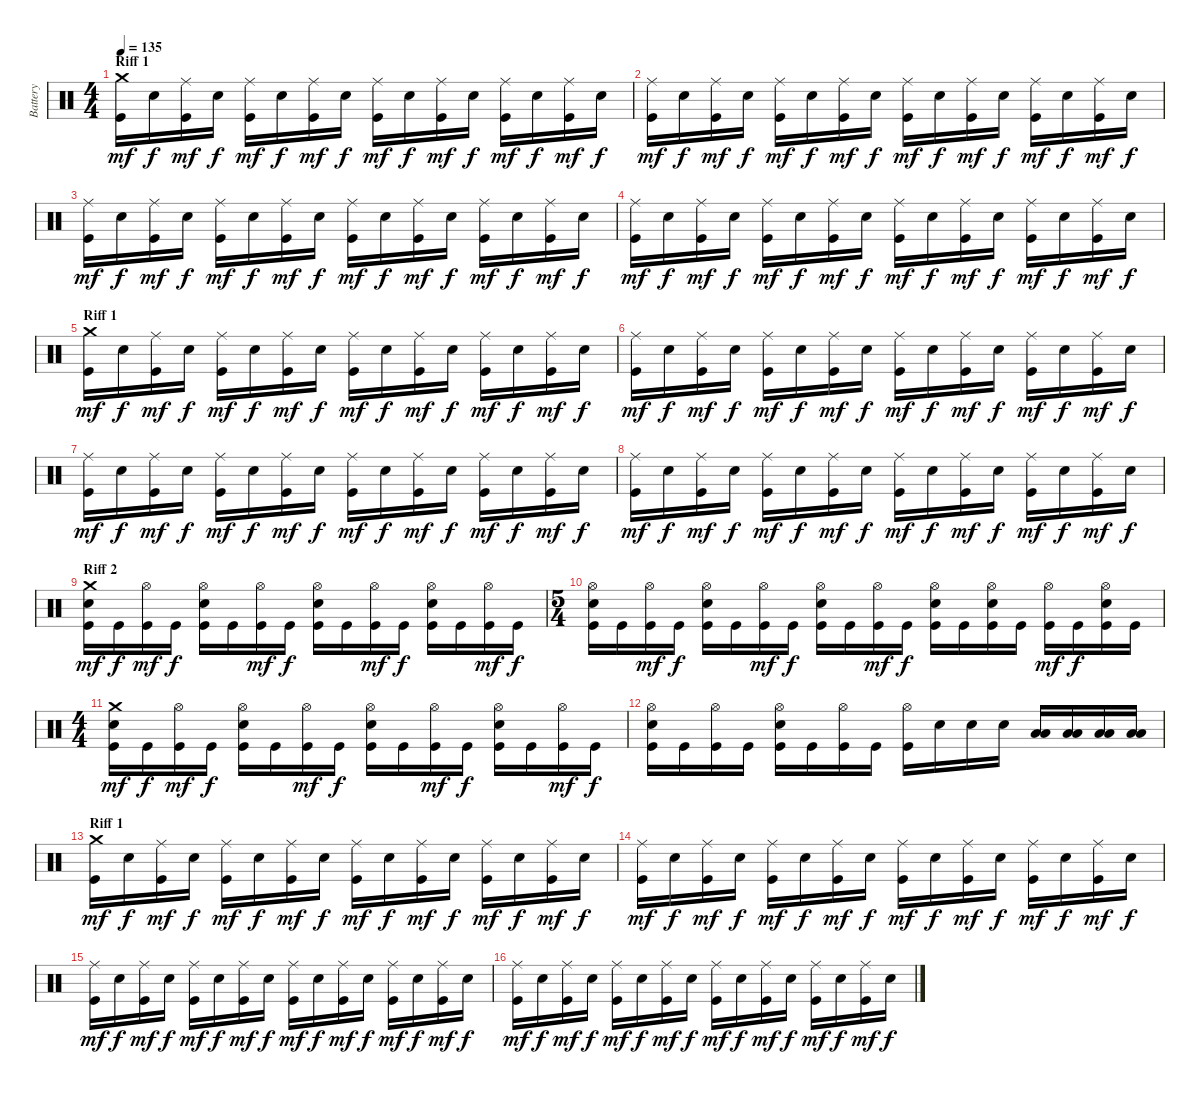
\track ("Battery" "Battery") {instrument percussion}
\staff {score}
\articulation defaults
\ts (4 4)
\section ("" "Riff 1")
\tempo 135
\clef neutral
\ks c
("Crash medium (hit)" "Kick (hit)").16{dy mf} "Electric Snare (hit)".16{dy f} ("Ride (middle)" "Kick (hit)").16{dy mf} "Electric Snare (hit)".16{dy f} ("Ride (middle)" "Kick (hit)").16{dy mf} "Electric Snare (hit)".16{dy f} ("Ride (middle)" "Kick (hit)").16{dy mf} "Electric Snare (hit)".16{dy f} ("Ride (middle)" "Kick (hit)").16{dy mf} "Electric Snare (hit)".16{dy f} ("Ride (middle)" "Kick (hit)").16{dy mf} "Electric Snare (hit)".16{dy f} ("Ride (middle)" "Kick (hit)").16{dy mf} "Electric Snare (hit)".16{dy f} ("Ride (middle)" "Kick (hit)").16{dy mf} "Electric Snare (hit)".16{dy f} |
("Ride (middle)" "Kick (hit)").16{dy mf} "Electric Snare (hit)".16{dy f} ("Ride (middle)" "Kick (hit)").16{dy mf} "Electric Snare (hit)".16{dy f} ("Ride (middle)" "Kick (hit)").16{dy mf} "Electric Snare (hit)".16{dy f} ("Ride (middle)" "Kick (hit)").16{dy mf} "Electric Snare (hit)".16{dy f} ("Ride (middle)" "Kick (hit)").16{dy mf} "Electric Snare (hit)".16{dy f} ("Ride (middle)" "Kick (hit)").16{dy mf} "Electric Snare (hit)".16{dy f} ("Ride (middle)" "Kick (hit)").16{dy mf} "Electric Snare (hit)".16{dy f} ("Ride (middle)" "Kick (hit)").16{dy mf} "Electric Snare (hit)".16{dy f} |
("Ride (middle)" "Kick (hit)").16{dy mf} "Electric Snare (hit)".16{dy f} ("Ride (middle)" "Kick (hit)").16{dy mf} "Electric Snare (hit)".16{dy f} ("Ride (middle)" "Kick (hit)").16{dy mf} "Electric Snare (hit)".16{dy f} ("Ride (middle)" "Kick (hit)").16{dy mf} "Electric Snare (hit)".16{dy f} ("Ride (middle)" "Kick (hit)").16{dy mf} "Electric Snare (hit)".16{dy f} ("Ride (middle)" "Kick (hit)").16{dy mf} "Electric Snare (hit)".16{dy f} ("Ride (middle)" "Kick (hit)").16{dy mf} "Electric Snare (hit)".16{dy f} ("Ride (middle)" "Kick (hit)").16{dy mf} "Electric Snare (hit)".16{dy f} |
("Ride (middle)" "Kick (hit)").16{dy mf} "Electric Snare (hit)".16{dy f} ("Ride (middle)" "Kick (hit)").16{dy mf} "Electric Snare (hit)".16{dy f} ("Ride (middle)" "Kick (hit)").16{dy mf} "Electric Snare (hit)".16{dy f} ("Ride (middle)" "Kick (hit)").16{dy mf} "Electric Snare (hit)".16{dy f} ("Ride (middle)" "Kick (hit)").16{dy mf} "Electric Snare (hit)".16{dy f} ("Ride (middle)" "Kick (hit)").16{dy mf} "Electric Snare (hit)".16{dy f} ("Ride (middle)" "Kick (hit)").16{dy mf} "Electric Snare (hit)".16{dy f} ("Ride (middle)" "Kick (hit)").16{dy mf} "Electric Snare (hit)".16{dy f} |
\section ("" "Riff 1")
("Crash medium (hit)" "Kick (hit)").16{dy mf} "Electric Snare (hit)".16{dy f} ("Ride (middle)" "Kick (hit)").16{dy mf} "Electric Snare (hit)".16{dy f} ("Ride (middle)" "Kick (hit)").16{dy mf} "Electric Snare (hit)".16{dy f} ("Ride (middle)" "Kick (hit)").16{dy mf} "Electric Snare (hit)".16{dy f} ("Ride (middle)" "Kick (hit)").16{dy mf} "Electric Snare (hit)".16{dy f} ("Ride (middle)" "Kick (hit)").16{dy mf} "Electric Snare (hit)".16{dy f} ("Ride (middle)" "Kick (hit)").16{dy mf} "Electric Snare (hit)".16{dy f} ("Ride (middle)" "Kick (hit)").16{dy mf} "Electric Snare (hit)".16{dy f} |
("Ride (middle)" "Kick (hit)").16{dy mf} "Electric Snare (hit)".16{dy f} ("Ride (middle)" "Kick (hit)").16{dy mf} "Electric Snare (hit)".16{dy f} ("Ride (middle)" "Kick (hit)").16{dy mf} "Electric Snare (hit)".16{dy f} ("Ride (middle)" "Kick (hit)").16{dy mf} "Electric Snare (hit)".16{dy f} ("Ride (middle)" "Kick (hit)").16{dy mf} "Electric Snare (hit)".16{dy f} ("Ride (middle)" "Kick (hit)").16{dy mf} "Electric Snare (hit)".16{dy f} ("Ride (middle)" "Kick (hit)").16{dy mf} "Electric Snare (hit)".16{dy f} ("Ride (middle)" "Kick (hit)").16{dy mf} "Electric Snare (hit)".16{dy f} |
("Ride (middle)" "Kick (hit)").16{dy mf} "Electric Snare (hit)".16{dy f} ("Ride (middle)" "Kick (hit)").16{dy mf} "Electric Snare (hit)".16{dy f} ("Ride (middle)" "Kick (hit)").16{dy mf} "Electric Snare (hit)".16{dy f} ("Ride (middle)" "Kick (hit)").16{dy mf} "Electric Snare (hit)".16{dy f} ("Ride (middle)" "Kick (hit)").16{dy mf} "Electric Snare (hit)".16{dy f} ("Ride (middle)" "Kick (hit)").16{dy mf} "Electric Snare (hit)".16{dy f} ("Ride (middle)" "Kick (hit)").16{dy mf} "Electric Snare (hit)".16{dy f} ("Ride (middle)" "Kick (hit)").16{dy mf} "Electric Snare (hit)".16{dy f} |
("Ride (middle)" "Kick (hit)").16{dy mf} "Electric Snare (hit)".16{dy f} ("Ride (middle)" "Kick (hit)").16{dy mf} "Electric Snare (hit)".16{dy f} ("Ride (middle)" "Kick (hit)").16{dy mf} "Electric Snare (hit)".16{dy f} ("Ride (middle)" "Kick (hit)").16{dy mf} "Electric Snare (hit)".16{dy f} ("Ride (middle)" "Kick (hit)").16{dy mf} "Electric Snare (hit)".16{dy f} ("Ride (middle)" "Kick (hit)").16{dy mf} "Electric Snare (hit)".16{dy f} ("Ride (middle)" "Kick (hit)").16{dy mf} "Electric Snare (hit)".16{dy f} ("Ride (middle)" "Kick (hit)").16{dy mf} "Electric Snare (hit)".16{dy f} |
\section ("" "Riff 2")
("Crash medium (hit)" "Electric Snare (hit)" "Kick (hit)").16{dy mf} "Kick (hit)".16{dy f} ("Hi-Hat (open)" "Kick (hit)").16{dy mf} "Kick (hit)".16{dy f} ("Hi-Hat (open)" "Electric Snare (hit)" "Kick (hit)").16 "Kick (hit)".16 ("Hi-Hat (open)" "Kick (hit)").16{dy mf} "Kick (hit)".16{dy f} ("Hi-Hat (open)" "Electric Snare (hit)" "Kick (hit)").16 "Kick (hit)".16 ("Hi-Hat (open)" "Kick (hit)").16{dy mf} "Kick (hit)".16{dy f} ("Hi-Hat (open)" "Electric Snare (hit)" "Kick (hit)").16 "Kick (hit)".16 ("Hi-Hat (open)" "Kick (hit)").16{dy mf} "Kick (hit)".16{dy f} |
\ts (5 4)
("Hi-Hat (open)" "Electric Snare (hit)" "Kick (hit)").16 "Kick (hit)".16 ("Hi-Hat (open)" "Kick (hit)").16{dy mf} "Kick (hit)".16{dy f} ("Hi-Hat (open)" "Electric Snare (hit)" "Kick (hit)").16 "Kick (hit)".16 ("Hi-Hat (open)" "Kick (hit)").16{dy mf} "Kick (hit)".16{dy f} ("Hi-Hat (open)" "Electric Snare (hit)" "Kick (hit)").16 "Kick (hit)".16 ("Hi-Hat (open)" "Kick (hit)").16{dy mf} "Kick (hit)".16{dy f} ("Hi-Hat (open)" "Electric Snare (hit)" "Kick (hit)").16 "Kick (hit)".16 ("Hi-Hat (open)" "Electric Snare (hit)" "Kick (hit)").16 "Kick (hit)".16 ("Hi-Hat (open)" "Kick (hit)").16{dy mf} "Kick (hit)".16{dy f} ("Hi-Hat (open)" "Electric Snare (hit)" "Kick (hit)").16 "Kick (hit)".16 |
\ts (4 4)
("Crash medium (hit)" "Electric Snare (hit)" "Kick (hit)").16{dy mf} "Kick (hit)".16{dy f} ("Hi-Hat (open)" "Kick (hit)").16{dy mf} "Kick (hit)".16{dy f} ("Hi-Hat (open)" "Electric Snare (hit)" "Kick (hit)").16 "Kick (hit)".16 ("Hi-Hat (open)" "Kick (hit)").16{dy mf} "Kick (hit)".16{dy f} ("Hi-Hat (open)" "Electric Snare (hit)" "Kick (hit)").16 "Kick (hit)".16 ("Hi-Hat (open)" "Kick (hit)").16{dy mf} "Kick (hit)".16{dy f} ("Hi-Hat (open)" "Electric Snare (hit)" "Kick (hit)").16 "Kick (hit)".16 ("Hi-Hat (open)" "Kick (hit)").16{dy mf} "Kick (hit)".16{dy f} |
("Hi-Hat (open)" "Electric Snare (hit)" "Kick (hit)").16 "Kick (hit)".16 ("Hi-Hat (open)" "Kick (hit)").16 "Kick (hit)".16 ("Hi-Hat (open)" "Electric Snare (hit)" "Kick (hit)").16 "Kick (hit)".16 ("Hi-Hat (open)" "Kick (hit)").16 "Kick (hit)".16 ("Hi-Hat (open)" "Kick (hit)").16 "Electric Snare (hit)".16 "Electric Snare (hit)".16 "Electric Snare (hit)".16 ("Low Tom (hit)" "Low Tom (hit)").16 ("Low Tom (hit)" "Low Tom (hit)").16 ("Low Tom (hit)" "Low Tom (hit)").16 ("Low Tom (hit)" "Low Tom (hit)").16 |
\section ("" "Riff 1")
("Crash medium (hit)" "Kick (hit)").16{dy mf} "Electric Snare (hit)".16{dy f} ("Ride (middle)" "Kick (hit)").16{dy mf} "Electric Snare (hit)".16{dy f} ("Ride (middle)" "Kick (hit)").16{dy mf} "Electric Snare (hit)".16{dy f} ("Ride (middle)" "Kick (hit)").16{dy mf} "Electric Snare (hit)".16{dy f} ("Ride (middle)" "Kick (hit)").16{dy mf} "Electric Snare (hit)".16{dy f} ("Ride (middle)" "Kick (hit)").16{dy mf} "Electric Snare (hit)".16{dy f} ("Ride (middle)" "Kick (hit)").16{dy mf} "Electric Snare (hit)".16{dy f} ("Ride (middle)" "Kick (hit)").16{dy mf} "Electric Snare (hit)".16{dy f} |
("Ride (middle)" "Kick (hit)").16{dy mf} "Electric Snare (hit)".16{dy f} ("Ride (middle)" "Kick (hit)").16{dy mf} "Electric Snare (hit)".16{dy f} ("Ride (middle)" "Kick (hit)").16{dy mf} "Electric Snare (hit)".16{dy f} ("Ride (middle)" "Kick (hit)").16{dy mf} "Electric Snare (hit)".16{dy f} ("Ride (middle)" "Kick (hit)").16{dy mf} "Electric Snare (hit)".16{dy f} ("Ride (middle)" "Kick (hit)").16{dy mf} "Electric Snare (hit)".16{dy f} ("Ride (middle)" "Kick (hit)").16{dy mf} "Electric Snare (hit)".16{dy f} ("Ride (middle)" "Kick (hit)").16{dy mf} "Electric Snare (hit)".16{dy f} |
("Ride (middle)" "Kick (hit)").16{dy mf} "Electric Snare (hit)".16{dy f} ("Ride (middle)" "Kick (hit)").16{dy mf} "Electric Snare (hit)".16{dy f} ("Ride (middle)" "Kick (hit)").16{dy mf} "Electric Snare (hit)".16{dy f} ("Ride (middle)" "Kick (hit)").16{dy mf} "Electric Snare (hit)".16{dy f} ("Ride (middle)" "Kick (hit)").16{dy mf} "Electric Snare (hit)".16{dy f} ("Ride (middle)" "Kick (hit)").16{dy mf} "Electric Snare (hit)".16{dy f} ("Ride (middle)" "Kick (hit)").16{dy mf} "Electric Snare (hit)".16{dy f} ("Ride (middle)" "Kick (hit)").16{dy mf} "Electric Snare (hit)".16{dy f} |
("Ride (middle)" "Kick (hit)").16{dy mf} "Electric Snare (hit)".16{dy f} ("Ride (middle)" "Kick (hit)").16{dy mf} "Electric Snare (hit)".16{dy f} ("Ride (middle)" "Kick (hit)").16{dy mf} "Electric Snare (hit)".16{dy f} ("Ride (middle)" "Kick (hit)").16{dy mf} "Electric Snare (hit)".16{dy f} ("Ride (middle)" "Kick (hit)").16{dy mf} "Electric Snare (hit)".16{dy f} ("Ride (middle)" "Kick (hit)").16{dy mf} "Electric Snare (hit)".16{dy f} ("Ride (middle)" "Kick (hit)").16{dy mf} "Electric Snare (hit)".16{dy f} ("Ride (middle)" "Kick (hit)").16{dy mf} "Electric Snare (hit)".16{dy f}
